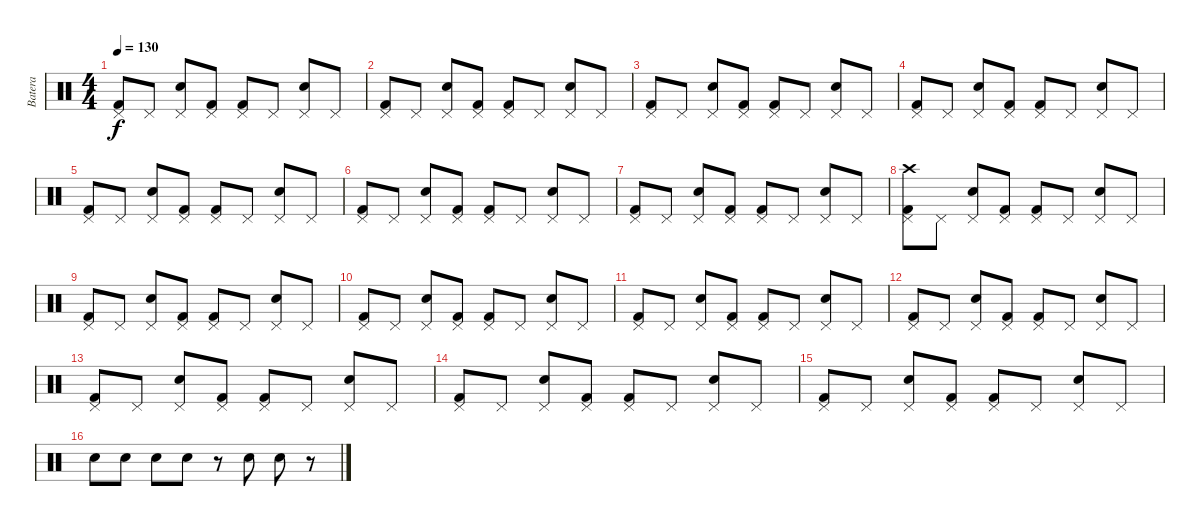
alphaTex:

\track ("Batera" "Batera") {instrument percussion}
\staff {score}
\articulation defaults
\ts (4 4)
\tempo 130
\clef neutral
\ks c
("Pedal Hi-Hat (hit)" "Kick (hit) 2").8{dy f} "Pedal Hi-Hat (hit)".8 ("Pedal Hi-Hat (hit)" "Snare (hit) 2").8 ("Pedal Hi-Hat (hit)" "Kick (hit) 2").8 ("Pedal Hi-Hat (hit)" "Kick (hit) 2").8 "Pedal Hi-Hat (hit)".8 ("Pedal Hi-Hat (hit)" "Snare (hit) 2").8 "Pedal Hi-Hat (hit)".8 |
("Pedal Hi-Hat (hit)" "Kick (hit) 2").8 "Pedal Hi-Hat (hit)".8 ("Pedal Hi-Hat (hit)" "Snare (hit) 2").8 ("Pedal Hi-Hat (hit)" "Kick (hit) 2").8 ("Pedal Hi-Hat (hit)" "Kick (hit) 2").8 "Pedal Hi-Hat (hit)".8 ("Pedal Hi-Hat (hit)" "Snare (hit) 2").8 "Pedal Hi-Hat (hit)".8 |
("Pedal Hi-Hat (hit)" "Kick (hit) 2").8 "Pedal Hi-Hat (hit)".8 ("Pedal Hi-Hat (hit)" "Snare (hit) 2").8 ("Pedal Hi-Hat (hit)" "Kick (hit) 2").8 ("Pedal Hi-Hat (hit)" "Kick (hit) 2").8 "Pedal Hi-Hat (hit)".8 ("Pedal Hi-Hat (hit)" "Snare (hit) 2").8 "Pedal Hi-Hat (hit)".8 |
("Pedal Hi-Hat (hit)" "Kick (hit) 2").8 "Pedal Hi-Hat (hit)".8 ("Pedal Hi-Hat (hit)" "Snare (hit) 2").8 ("Pedal Hi-Hat (hit)" "Kick (hit) 2").8 ("Pedal Hi-Hat (hit)" "Kick (hit) 2").8 "Pedal Hi-Hat (hit)".8 ("Pedal Hi-Hat (hit)" "Snare (hit) 2").8 "Pedal Hi-Hat (hit)".8 |
("Pedal Hi-Hat (hit)" "Kick (hit) 2").8 "Pedal Hi-Hat (hit)".8 ("Pedal Hi-Hat (hit)" "Snare (hit) 2").8 ("Pedal Hi-Hat (hit)" "Kick (hit) 2").8 ("Pedal Hi-Hat (hit)" "Kick (hit) 2").8 "Pedal Hi-Hat (hit)".8 ("Pedal Hi-Hat (hit)" "Snare (hit) 2").8 "Pedal Hi-Hat (hit)".8 |
("Pedal Hi-Hat (hit)" "Kick (hit) 2").8 "Pedal Hi-Hat (hit)".8 ("Pedal Hi-Hat (hit)" "Snare (hit) 2").8 ("Pedal Hi-Hat (hit)" "Kick (hit) 2").8 ("Pedal Hi-Hat (hit)" "Kick (hit) 2").8 "Pedal Hi-Hat (hit)".8 ("Pedal Hi-Hat (hit)" "Snare (hit) 2").8 "Pedal Hi-Hat (hit)".8 |
("Pedal Hi-Hat (hit)" "Kick (hit) 2").8 "Pedal Hi-Hat (hit)".8 ("Pedal Hi-Hat (hit)" "Snare (hit) 2").8 ("Pedal Hi-Hat (hit)" "Kick (hit) 2").8 ("Pedal Hi-Hat (hit)" "Kick (hit) 2").8 "Pedal Hi-Hat (hit)".8 ("Pedal Hi-Hat (hit)" "Snare (hit) 2").8 "Pedal Hi-Hat (hit)".8 |
("Pedal Hi-Hat (hit)" "Crash high (hit)" "Kick (hit) 2").8 "Pedal Hi-Hat (hit)".8 ("Pedal Hi-Hat (hit)" "Snare (hit) 2").8 ("Pedal Hi-Hat (hit)" "Kick (hit) 2").8 ("Pedal Hi-Hat (hit)" "Kick (hit) 2").8 "Pedal Hi-Hat (hit)".8 ("Pedal Hi-Hat (hit)" "Snare (hit) 2").8 "Pedal Hi-Hat (hit)".8 |
("Pedal Hi-Hat (hit)" "Kick (hit) 2").8 "Pedal Hi-Hat (hit)".8 ("Pedal Hi-Hat (hit)" "Snare (hit) 2").8 ("Pedal Hi-Hat (hit)" "Kick (hit) 2").8 ("Pedal Hi-Hat (hit)" "Kick (hit) 2").8 "Pedal Hi-Hat (hit)".8 ("Pedal Hi-Hat (hit)" "Snare (hit) 2").8 "Pedal Hi-Hat (hit)".8 |
("Pedal Hi-Hat (hit)" "Kick (hit) 2").8 "Pedal Hi-Hat (hit)".8 ("Pedal Hi-Hat (hit)" "Snare (hit) 2").8 ("Pedal Hi-Hat (hit)" "Kick (hit) 2").8 ("Pedal Hi-Hat (hit)" "Kick (hit) 2").8 "Pedal Hi-Hat (hit)".8 ("Pedal Hi-Hat (hit)" "Snare (hit) 2").8 "Pedal Hi-Hat (hit)".8 |
("Pedal Hi-Hat (hit)" "Kick (hit) 2").8 "Pedal Hi-Hat (hit)".8 ("Pedal Hi-Hat (hit)" "Snare (hit) 2").8 ("Pedal Hi-Hat (hit)" "Kick (hit) 2").8 ("Pedal Hi-Hat (hit)" "Kick (hit) 2").8 "Pedal Hi-Hat (hit)".8 ("Pedal Hi-Hat (hit)" "Snare (hit) 2").8 "Pedal Hi-Hat (hit)".8 |
("Pedal Hi-Hat (hit)" "Kick (hit) 2").8 "Pedal Hi-Hat (hit)".8 ("Pedal Hi-Hat (hit)" "Snare (hit) 2").8 ("Pedal Hi-Hat (hit)" "Kick (hit) 2").8 ("Pedal Hi-Hat (hit)" "Kick (hit) 2").8 "Pedal Hi-Hat (hit)".8 ("Pedal Hi-Hat (hit)" "Snare (hit) 2").8 "Pedal Hi-Hat (hit)".8 |
("Pedal Hi-Hat (hit)" "Kick (hit) 2").8 "Pedal Hi-Hat (hit)".8 ("Pedal Hi-Hat (hit)" "Snare (hit) 2").8 ("Pedal Hi-Hat (hit)" "Kick (hit) 2").8 ("Pedal Hi-Hat (hit)" "Kick (hit) 2").8 "Pedal Hi-Hat (hit)".8 ("Pedal Hi-Hat (hit)" "Snare (hit) 2").8 "Pedal Hi-Hat (hit)".8 |
("Pedal Hi-Hat (hit)" "Kick (hit) 2").8 "Pedal Hi-Hat (hit)".8 ("Pedal Hi-Hat (hit)" "Snare (hit) 2").8 ("Pedal Hi-Hat (hit)" "Kick (hit) 2").8 ("Pedal Hi-Hat (hit)" "Kick (hit) 2").8 "Pedal Hi-Hat (hit)".8 ("Pedal Hi-Hat (hit)" "Snare (hit) 2").8 "Pedal Hi-Hat (hit)".8 |
("Pedal Hi-Hat (hit)" "Kick (hit) 2").8 "Pedal Hi-Hat (hit)".8 ("Pedal Hi-Hat (hit)" "Snare (hit) 2").8 ("Pedal Hi-Hat (hit)" "Kick (hit) 2").8 ("Pedal Hi-Hat (hit)" "Kick (hit) 2").8 "Pedal Hi-Hat (hit)".8 ("Pedal Hi-Hat (hit)" "Snare (hit) 2").8 "Pedal Hi-Hat (hit)".8 |
"Snare (hit) 2".8 "Snare (hit) 2".8 "Snare (hit) 2".8 "Snare (hit) 2".8 r.8 "Snare (hit) 2".8 "Snare (hit) 2".8 r.8
